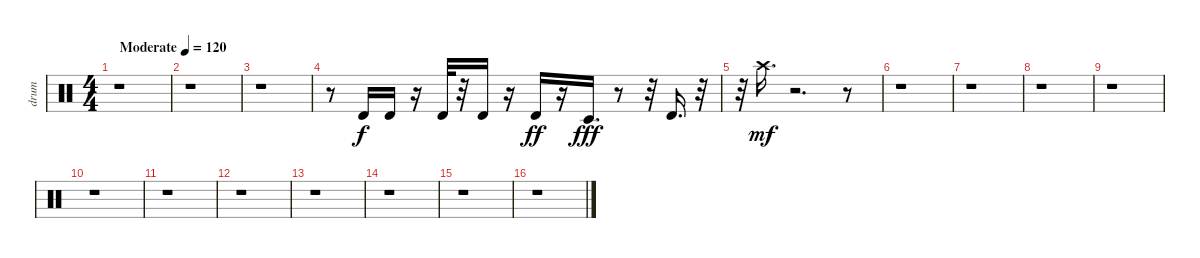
\track ("drum" "drum") {instrument percussion}
\staff {score}
\articulation defaults
\ts (4 4)
\tempo (120 "Moderate")
\clef neutral
\ks c
r.1{dy f} |
r.1 |
r.1 |
r.8 "Timbale high (hit)".16 "Timbale high (hit)".16 r.16 "Timbale high (hit)".32 r.32 "Timbale high (hit)".16 r.16 "Timbale high (hit)".16{dy ff} r.16 "Timbale low (hit)".16{d dy fff} r.8 r.32 "Timbale high (hit)".16{d} r.32 |
r.32 "Crash high (hit)".16{d dy mf} r.2{d} r.8 |
r.1 |
r.1 |
r.1 |
r.1 |
r.1 |
r.1 |
r.1 |
r.1 |
r.1 |
r.1 |
r.1
